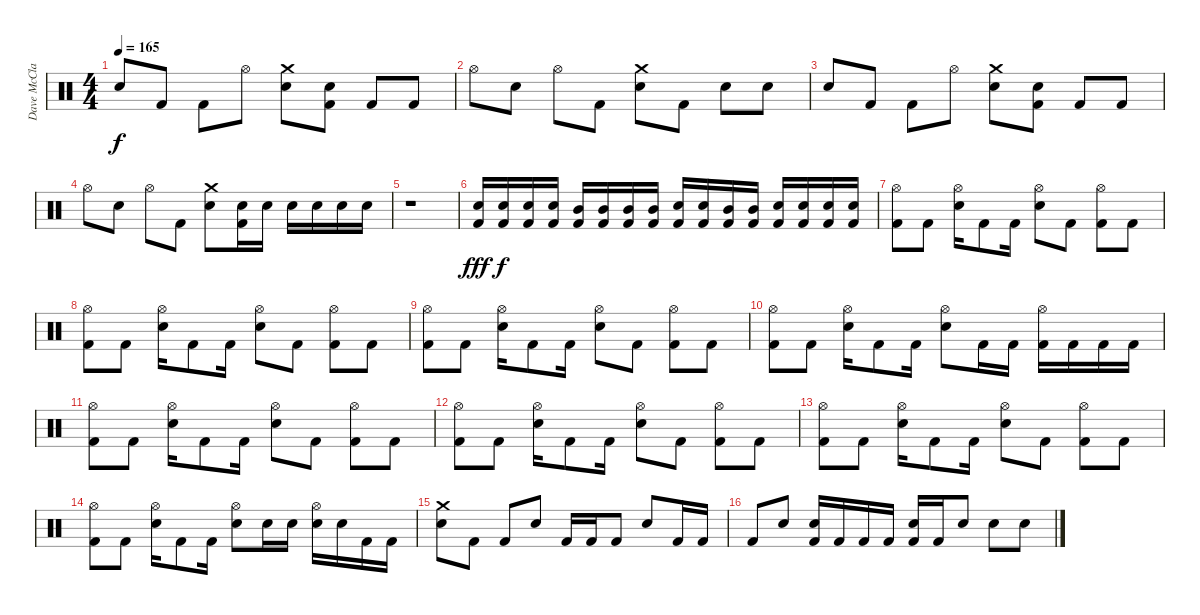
\track ("Dave McClain" "Dave McCla") {instrument percussion}
\staff {score}
\articulation defaults
\ts (4 4)
\tempo 165
\clef neutral
\ks c "Electric Snare (hit)".8{dy f} "Kick (hit) 2".8 "Kick (hit) 2".8 "Hi-Hat (open)".8
("Crash medium (hit)" "Electric Snare (hit)").8 ("Snare (hit) 2" "Kick (hit) 2").8 "Kick (hit) 2".8 "Kick (hit) 2".8 |
"Hi-Hat (open)".8 "Electric Snare (hit)".8 "Hi-Hat (open)".8 "Kick (hit) 2".8 ("Crash medium (hit)" "Electric Snare (hit)").8 "Kick (hit) 2".8 "Electric Snare (hit)".8 "Electric Snare (hit)".8 |
"Electric Snare (hit)".8 "Kick (hit) 2".8 "Kick (hit) 2".8 "Hi-Hat (open)".8 ("Crash medium (hit)" "Electric Snare (hit)").8 ("Snare (hit) 2" "Kick (hit) 2").8 "Kick (hit) 2".8 "Kick (hit) 2".8 |
"Hi-Hat (open)".8 "Electric Snare (hit)".8 "Hi-Hat (open)".8 "Kick (hit) 2".8 ("Crash medium (hit)" "Electric Snare (hit)").8 ("Electric Snare (hit)" "Kick (hit) 2").16 "Electric Snare (hit)".16 "Electric Snare (hit)".16 "Electric Snare (hit)".16 "Electric Snare (hit)".16 "Electric Snare (hit)".16 |
r.1 |
("Electric Snare (hit)" "Kick (hit) 2").16{dy fff} ("Electric Snare (hit)" "Kick (hit) 2").16{dy f} ("Electric Snare (hit)" "Kick (hit) 2").16 ("Electric Snare (hit)" "Kick (hit) 2").16 ("Mid Tom (hit)" "Kick (hit) 2").16 ("Mid Tom (hit)" "Kick (hit) 2").16 ("Mid Tom (hit)" "Kick (hit) 2").16 ("Mid Tom (hit)" "Kick (hit) 2").16 ("Electric Snare (hit)" "Kick (hit) 2").16 ("Electric Snare (hit)" "Kick (hit) 2").16 ("Mid Tom (hit)" "Kick (hit) 2").16 ("Mid Tom (hit)" "Kick (hit) 2").16 ("Electric Snare (hit)" "Kick (hit) 2").16 ("Electric Snare (hit)" "Kick (hit) 2").16 ("Electric Snare (hit)" "Kick (hit) 2").16 ("Electric Snare (hit)" "Kick (hit) 2").16 |
("Hi-Hat (open)" "Kick (hit) 2").8 "Kick (hit) 2".8 ("Hi-Hat (open)" "Electric Snare (hit)").16 "Kick (hit) 2".8 "Kick (hit) 2".16 ("Hi-Hat (open)" "Electric Snare (hit)").8 "Kick (hit) 2".8 ("Hi-Hat (open)" "Kick (hit) 2").8 "Kick (hit) 2".8 |
("Hi-Hat (open)" "Kick (hit) 2").8 "Kick (hit) 2".8 ("Hi-Hat (open)" "Electric Snare (hit)").16 "Kick (hit) 2".8 "Kick (hit) 2".16 ("Hi-Hat (open)" "Electric Snare (hit)").8 "Kick (hit) 2".8 ("Hi-Hat (open)" "Kick (hit) 2").8 "Kick (hit) 2".8 |
("Hi-Hat (open)" "Kick (hit) 2").8 "Kick (hit) 2".8 ("Hi-Hat (open)" "Electric Snare (hit)").16 "Kick (hit) 2".8 "Kick (hit) 2".16 ("Hi-Hat (open)" "Electric Snare (hit)").8 "Kick (hit) 2".8 ("Hi-Hat (open)" "Kick (hit) 2").8 "Kick (hit) 2".8 |
("Hi-Hat (open)" "Kick (hit) 2").8 "Kick (hit) 2".8 ("Hi-Hat (open)" "Electric Snare (hit)").16 "Kick (hit) 2".8 "Kick (hit) 2".16 ("Hi-Hat (open)" "Electric Snare (hit)").8 "Kick (hit) 2".16 "Kick (hit) 2".16 ("Hi-Hat (open)" "Kick (hit) 2").16 "Kick (hit) 2".16 "Kick (hit) 2".16 "Kick (hit) 2".16 |
("Hi-Hat (open)" "Kick (hit) 2").8 "Kick (hit) 2".8 ("Hi-Hat (open)" "Electric Snare (hit)").16 "Kick (hit) 2".8 "Kick (hit) 2".16 ("Hi-Hat (open)" "Electric Snare (hit)").8 "Kick (hit) 2".8 ("Hi-Hat (open)" "Kick (hit) 2").8 "Kick (hit) 2".8 |
("Hi-Hat (open)" "Kick (hit) 2").8 "Kick (hit) 2".8 ("Hi-Hat (open)" "Electric Snare (hit)").16 "Kick (hit) 2".8 "Kick (hit) 2".16 ("Hi-Hat (open)" "Electric Snare (hit)").8 "Kick (hit) 2".8 ("Hi-Hat (open)" "Kick (hit) 2").8 "Kick (hit) 2".8 |
("Hi-Hat (open)" "Kick (hit) 2").8 "Kick (hit) 2".8 ("Hi-Hat (open)" "Electric Snare (hit)").16 "Kick (hit) 2".8 "Kick (hit) 2".16 ("Hi-Hat (open)" "Electric Snare (hit)").8 "Kick (hit) 2".8 ("Hi-Hat (open)" "Kick (hit) 2").8 "Kick (hit) 2".8 |
("Hi-Hat (open)" "Kick (hit) 2").8 "Kick (hit) 2".8 ("Hi-Hat (open)" "Electric Snare (hit)").16 "Kick (hit) 2".8 "Kick (hit) 2".16 ("Hi-Hat (open)" "Electric Snare (hit)").8 "Electric Snare (hit)".16 "Electric Snare (hit)".16 ("Hi-Hat (open)" "Electric Snare (hit)").16 "Electric Snare (hit)".16 "Kick (hit) 2".16 "Kick (hit) 2".16 |
("Crash medium (hit)" "Electric Snare (hit)").8 "Kick (hit) 2".8 "Kick (hit) 2".8 "Electric Snare (hit)".8 "Kick (hit) 2".16 "Kick (hit) 2".16 "Kick (hit) 2".8 "Electric Snare (hit)".8 "Kick (hit) 2".16 "Kick (hit) 2".16 |
"Kick (hit) 2".8 "Electric Snare (hit)".8 ("Electric Snare (hit)" "Kick (hit) 2").16 "Kick (hit) 2".16 "Kick (hit) 2".16 "Kick (hit) 2".16 ("Electric Snare (hit)" "Kick (hit) 2").16 "Kick (hit) 2".16 "Electric Snare (hit)".8 "Electric Snare (hit)".8 "Electric Snare (hit)".8
